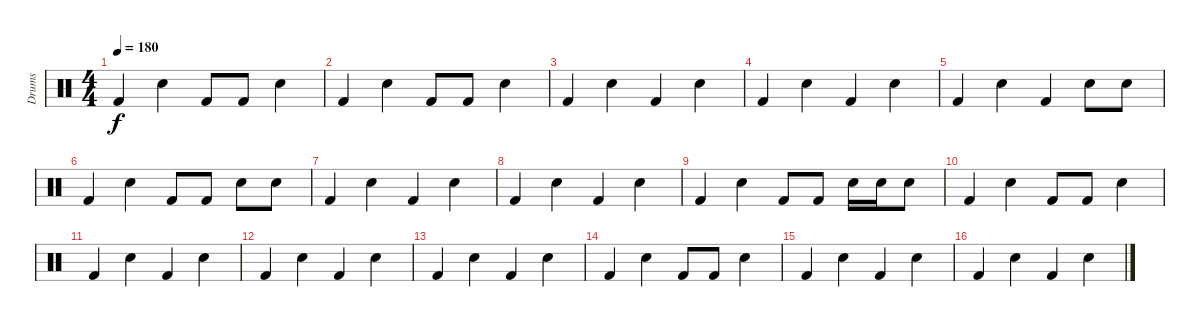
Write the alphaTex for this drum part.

\track ("Drums" "Drums") {instrument percussion}
\staff {score}
\articulation defaults
\ts (4 4)
\tempo 180
\clef neutral
\ks c "Kick (hit) 2".4{dy f} "Snare (hit) 2".4 "Kick (hit) 2".8 "Kick (hit) 2".8 "Snare (hit) 2".4
|
"Kick (hit) 2".4 "Snare (hit) 2".4 "Kick (hit) 2".8 "Kick (hit) 2".8 "Metronome (bell)".4 |
"Kick (hit) 2".4 "Snare (hit) 2".4 "Kick (hit) 2".4 "Snare (hit) 2".4 |
"Kick (hit) 2".4 "Snare (hit) 2".4 "Kick (hit) 2".4 "Snare (hit) 2".4 |
"Kick (hit) 2".4 "Snare (hit) 2".4 "Kick (hit) 2".4 "Snare (hit) 2".8 "Snare (hit) 2".8 |
"Kick (hit) 2".4 "Snare (hit) 2".4 "Kick (hit) 2".8 "Kick (hit) 2".8 "Snare (hit) 2".8 "Snare (hit) 2".8 |
"Kick (hit) 2".4 "Snare (hit) 2".4 "Kick (hit) 2".4 "Snare (hit) 2".4 |
"Kick (hit) 2".4 "Snare (hit) 2".4 "Kick (hit) 2".4 "Snare (hit) 2".4 |
"Kick (hit) 2".4 "Snare (hit) 2".4 "Kick (hit) 2".8 "Kick (hit) 2".8 "Snare (hit) 2".16 "Snare (hit) 2".16 "Snare (hit) 2".8 |
"Kick (hit) 2".4 "Snare (hit) 2".4 "Kick (hit) 2".8 "Kick (hit) 2".8 "Snare (hit) 2".4 |
"Kick (hit) 2".4 "Snare (hit) 2".4 "Kick (hit) 2".4 "Snare (hit) 2".4 |
"Kick (hit) 2".4 "Snare (hit) 2".4 "Kick (hit) 2".4 "Snare (hit) 2".4 |
"Kick (hit) 2".4 "Snare (hit) 2".4 "Kick (hit) 2".4 "Snare (hit) 2".4 |
"Kick (hit) 2".4 "Snare (hit) 2".4 "Kick (hit) 2".8 "Kick (hit) 2".8 "Snare (hit) 2".4 |
"Kick (hit) 2".4 "Snare (hit) 2".4 "Kick (hit) 2".4 "Snare (hit) 2".4 |
"Kick (hit) 2".4 "Snare (hit) 2".4 "Kick (hit) 2".4 "Snare (hit) 2".4
